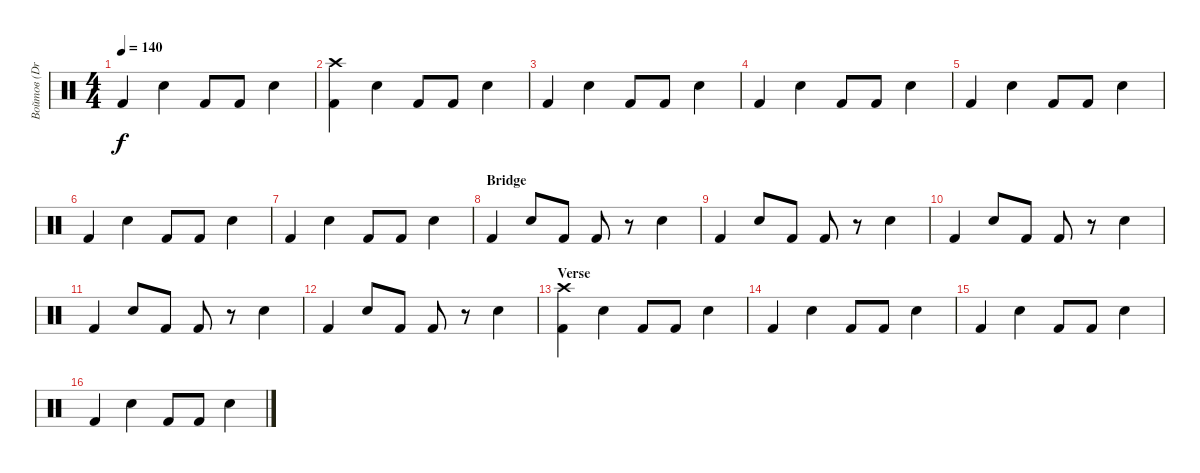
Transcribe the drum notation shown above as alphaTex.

\track ("Войтов (Drums)" "Войтов (Dr") {instrument percussion}
\staff {score}
\articulation defaults
\ts (4 4)
\tempo 140
\clef neutral
\ks c "Kick (hit) 2".4{dy f} "Electric Snare (hit)".4 "Kick (hit) 2".8 "Kick (hit) 2".8 "Electric Snare (hit)".4
|
("Kick (hit) 2" "Crash high (hit)").4 "Electric Snare (hit)".4 "Kick (hit) 2".8 "Kick (hit) 2".8 "Electric Snare (hit)".4 |
"Kick (hit) 2".4 "Electric Snare (hit)".4 "Kick (hit) 2".8 "Kick (hit) 2".8 "Electric Snare (hit)".4 |
"Kick (hit) 2".4 "Electric Snare (hit)".4 "Kick (hit) 2".8 "Kick (hit) 2".8 "Electric Snare (hit)".4 |
"Kick (hit) 2".4 "Electric Snare (hit)".4 "Kick (hit) 2".8 "Kick (hit) 2".8 "Electric Snare (hit)".4 |
"Kick (hit) 2".4 "Electric Snare (hit)".4 "Kick (hit) 2".8 "Kick (hit) 2".8 "Electric Snare (hit)".4 |
"Kick (hit) 2".4 "Electric Snare (hit)".4 "Kick (hit) 2".8 "Kick (hit) 2".8 "Electric Snare (hit)".4 |
\section ("" "Bridge")
"Kick (hit) 2".4 "Electric Snare (hit)".8 "Kick (hit) 2".8 "Kick (hit) 2".8 r.8 "Electric Snare (hit)".4 |
"Kick (hit) 2".4 "Electric Snare (hit)".8 "Kick (hit) 2".8 "Kick (hit) 2".8 r.8 "Electric Snare (hit)".4 |
"Kick (hit) 2".4 "Electric Snare (hit)".8 "Kick (hit) 2".8 "Kick (hit) 2".8 r.8 "Electric Snare (hit)".4 |
"Kick (hit) 2".4 "Electric Snare (hit)".8 "Kick (hit) 2".8 "Kick (hit) 2".8 r.8 "Electric Snare (hit)".4 |
"Kick (hit) 2".4 "Electric Snare (hit)".8 "Kick (hit) 2".8 "Kick (hit) 2".8 r.8 "Electric Snare (hit)".4 |
\section ("" "Verse")
("Kick (hit) 2" "Crash high (hit)").4 "Electric Snare (hit)".4 "Kick (hit) 2".8 "Kick (hit) 2".8 "Electric Snare (hit)".4 |
"Kick (hit) 2".4 "Electric Snare (hit)".4 "Kick (hit) 2".8 "Kick (hit) 2".8 "Electric Snare (hit)".4 |
"Kick (hit) 2".4 "Electric Snare (hit)".4 "Kick (hit) 2".8 "Kick (hit) 2".8 "Electric Snare (hit)".4 |
"Kick (hit) 2".4 "Electric Snare (hit)".4 "Kick (hit) 2".8 "Kick (hit) 2".8 "Electric Snare (hit)".4
